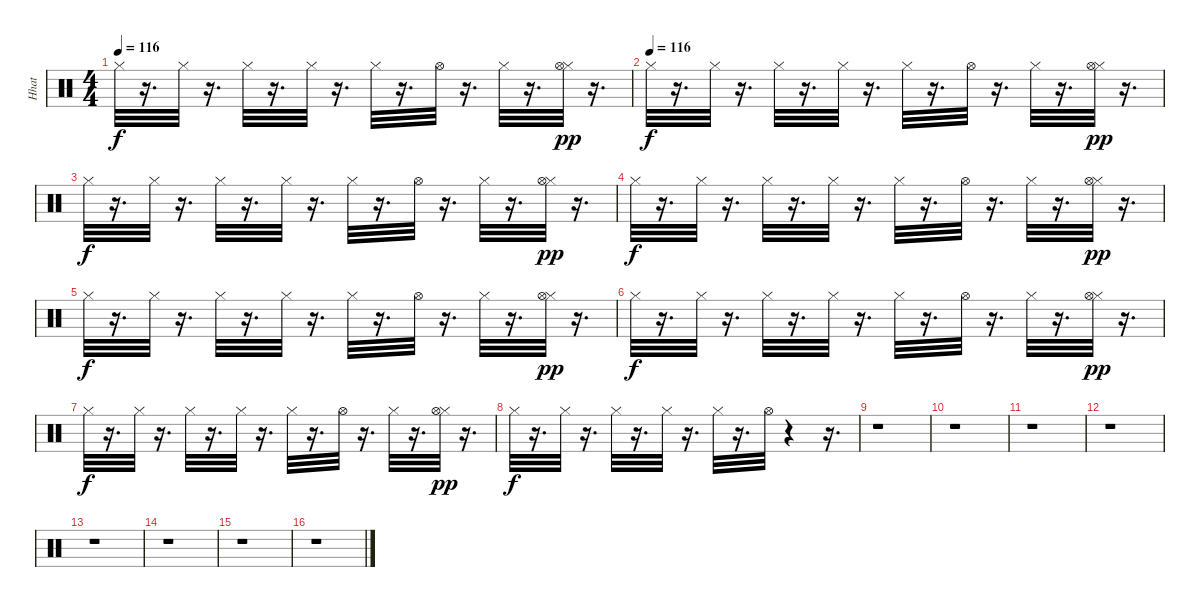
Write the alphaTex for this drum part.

\track ("Hhat" "Hhat") {instrument percussion}
\staff {score}
\articulation defaults
\ts (4 4)
\tempo 116
\clef neutral
\ks c "Hi-Hat (closed)".32{dy f}
r.16{d} "Hi-Hat (closed)".32 r.16{d} "Hi-Hat (closed)".32 r.16{d} "Hi-Hat (closed)".32 r.16{d} "Hi-Hat (closed)".32 r.16{d} "Hi-Hat (open)".32 r.16{d} "Hi-Hat (closed)".32 r.16{d} ("Hi-Hat (closed)" "Hi-Hat (open)").32{dy pp} r.16{d} |
\tempo (116)
"Hi-Hat (closed)".32{dy f} r.16{d} "Hi-Hat (closed)".32 r.16{d} "Hi-Hat (closed)".32 r.16{d} "Hi-Hat (closed)".32 r.16{d} "Hi-Hat (closed)".32 r.16{d} "Hi-Hat (open)".32 r.16{d} "Hi-Hat (closed)".32 r.16{d} ("Hi-Hat (closed)" "Hi-Hat (open)").32{dy pp} r.16{d} |
"Hi-Hat (closed)".32{dy f} r.16{d} "Hi-Hat (closed)".32 r.16{d} "Hi-Hat (closed)".32 r.16{d} "Hi-Hat (closed)".32 r.16{d} "Hi-Hat (closed)".32 r.16{d} "Hi-Hat (open)".32 r.16{d} "Hi-Hat (closed)".32 r.16{d} ("Hi-Hat (closed)" "Hi-Hat (open)").32{dy pp} r.16{d} |
"Hi-Hat (closed)".32{dy f} r.16{d} "Hi-Hat (closed)".32 r.16{d} "Hi-Hat (closed)".32 r.16{d} "Hi-Hat (closed)".32 r.16{d} "Hi-Hat (closed)".32 r.16{d} "Hi-Hat (open)".32 r.16{d} "Hi-Hat (closed)".32 r.16{d} ("Hi-Hat (closed)" "Hi-Hat (open)").32{dy pp} r.16{d} |
"Hi-Hat (closed)".32{dy f} r.16{d} "Hi-Hat (closed)".32 r.16{d} "Hi-Hat (closed)".32 r.16{d} "Hi-Hat (closed)".32 r.16{d} "Hi-Hat (closed)".32 r.16{d} "Hi-Hat (open)".32 r.16{d} "Hi-Hat (closed)".32 r.16{d} ("Hi-Hat (closed)" "Hi-Hat (open)").32{dy pp} r.16{d} |
"Hi-Hat (closed)".32{dy f} r.16{d} "Hi-Hat (closed)".32 r.16{d} "Hi-Hat (closed)".32 r.16{d} "Hi-Hat (closed)".32 r.16{d} "Hi-Hat (closed)".32 r.16{d} "Hi-Hat (open)".32 r.16{d} "Hi-Hat (closed)".32 r.16{d} ("Hi-Hat (closed)" "Hi-Hat (open)").32{dy pp} r.16{d} |
"Hi-Hat (closed)".32{dy f} r.16{d} "Hi-Hat (closed)".32 r.16{d} "Hi-Hat (closed)".32 r.16{d} "Hi-Hat (closed)".32 r.16{d} "Hi-Hat (closed)".32 r.16{d} "Hi-Hat (open)".32 r.16{d} "Hi-Hat (closed)".32 r.16{d} ("Hi-Hat (closed)" "Hi-Hat (open)").32{dy pp} r.16{d} |
"Hi-Hat (closed)".32{dy f} r.16{d} "Hi-Hat (closed)".32 r.16{d} "Hi-Hat (closed)".32 r.16{d} "Hi-Hat (closed)".32 r.16{d} "Hi-Hat (closed)".32 r.16{d} "Hi-Hat (open)".32 r.4 r.16{d} |
r.1 |
r.1 |
r.1 |
r.1 |
r.1 |
r.1 |
r.1 |
r.1
